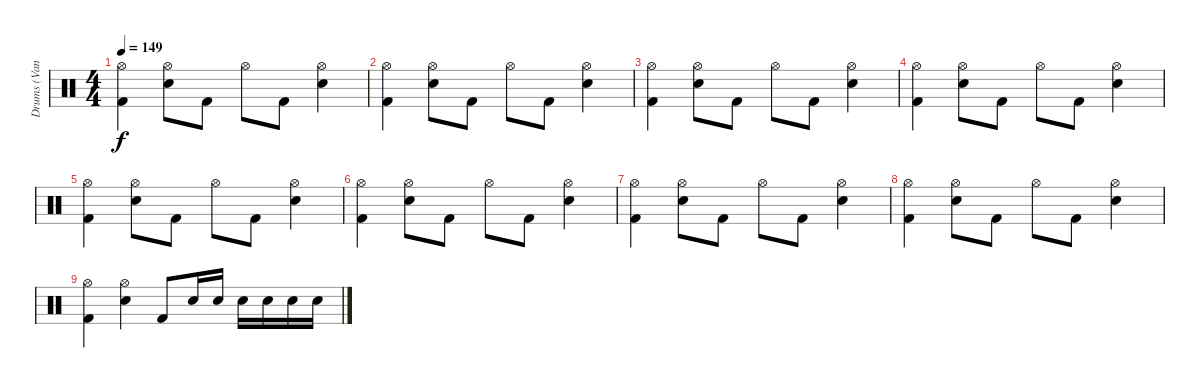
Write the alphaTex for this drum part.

\track ("Drums (Vandel)" "Drums (Van") {instrument percussion}
\staff {score}
\articulation defaults
\ts (4 4)
\tempo 149
\clef neutral
\ks c
("Hi-Hat (open)" "Kick (hit) 2").4{dy f} ("Hi-Hat (open)" "Snare (hit) 2").8 "Kick (hit) 2".8 "Hi-Hat (open)".8 "Kick (hit) 2".8 ("Hi-Hat (open)" "Snare (hit) 2").4 |
("Hi-Hat (open)" "Kick (hit) 2").4 ("Hi-Hat (open)" "Snare (hit) 2").8 "Kick (hit) 2".8 "Hi-Hat (open)".8 "Kick (hit) 2".8 ("Hi-Hat (open)" "Snare (hit) 2").4 |
("Hi-Hat (open)" "Kick (hit) 2").4 ("Hi-Hat (open)" "Snare (hit) 2").8 "Kick (hit) 2".8 "Hi-Hat (open)".8 "Kick (hit) 2".8 ("Hi-Hat (open)" "Snare (hit) 2").4 |
("Hi-Hat (open)" "Kick (hit) 2").4 ("Hi-Hat (open)" "Snare (hit) 2").8 "Kick (hit) 2".8 "Hi-Hat (open)".8 "Kick (hit) 2".8 ("Hi-Hat (open)" "Snare (hit) 2").4 |
("Hi-Hat (open)" "Kick (hit) 2").4 ("Hi-Hat (open)" "Snare (hit) 2").8 "Kick (hit) 2".8 "Hi-Hat (open)".8 "Kick (hit) 2".8 ("Hi-Hat (open)" "Snare (hit) 2").4 |
("Hi-Hat (open)" "Kick (hit) 2").4{volume 0} ("Hi-Hat (open)" "Snare (hit) 2").8 "Kick (hit) 2".8 "Hi-Hat (open)".8 "Kick (hit) 2".8 ("Hi-Hat (open)" "Snare (hit) 2").4 |
("Hi-Hat (open)" "Kick (hit) 2").4 ("Hi-Hat (open)" "Snare (hit) 2").8 "Kick (hit) 2".8 "Hi-Hat (open)".8 "Kick (hit) 2".8 ("Hi-Hat (open)" "Snare (hit) 2").4 |
("Hi-Hat (open)" "Kick (hit) 2").4 ("Hi-Hat (open)" "Snare (hit) 2").8 "Kick (hit) 2".8 "Hi-Hat (open)".8 "Kick (hit) 2".8 ("Hi-Hat (open)" "Snare (hit) 2").4 |
("Hi-Hat (open)" "Kick (hit) 2").4 ("Hi-Hat (open)" "Snare (hit) 2").4 "Kick (hit) 2".8 "Snare (hit) 2".16 "Snare (hit) 2".16 "Snare (hit) 2".16 "Snare (hit) 2".16 "Snare (hit) 2".16 "Snare (hit) 2".16
